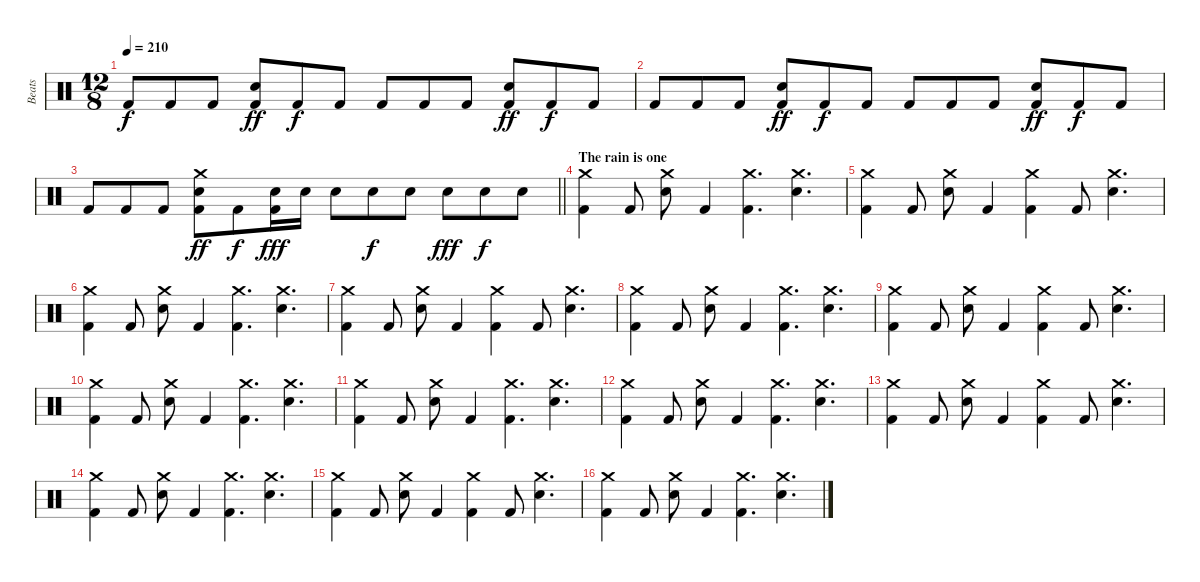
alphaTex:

\track ("Beats" "Beats") {instrument percussion}
\staff {score}
\articulation defaults
\ts (12 8)
\tempo 210
\clef neutral
\ks c "Kick (hit) 2".8{dy f} "Kick (hit) 2".8 "Kick (hit) 2".8
("Snare (hit) 2" "Kick (hit) 2").8{dy ff} "Kick (hit) 2".8{dy f} "Kick (hit) 2".8 "Kick (hit) 2".8 "Kick (hit) 2".8 "Kick (hit) 2".8 ("Snare (hit) 2" "Kick (hit) 2").8{dy ff} "Kick (hit) 2".8{dy f} "Kick (hit) 2".8 |
"Kick (hit) 2".8 "Kick (hit) 2".8 "Kick (hit) 2".8 ("Snare (hit) 2" "Kick (hit) 2").8{dy ff} "Kick (hit) 2".8{dy f} "Kick (hit) 2".8 "Kick (hit) 2".8 "Kick (hit) 2".8 "Kick (hit) 2".8 ("Snare (hit) 2" "Kick (hit) 2").8{dy ff} "Kick (hit) 2".8{dy f} "Kick (hit) 2".8 |
\barLineRight lightlight "Kick (hit) 2".8 "Kick (hit) 2".8 "Kick (hit) 2".8
("Crash medium (hit)" "Snare (hit) 2" "Kick (hit) 2").8{dy ff} "Kick (hit) 2".8{dy f} ("Snare (hit) 2" "Kick (hit) 2").16{dy fff} "Snare (hit) 2".16 "Snare (hit) 2".8 "Snare (hit) 2".8{dy f} "Snare (hit) 2".8 "Snare (hit) 2".8{dy fff} "Snare (hit) 2".8{dy f} "Snare (hit) 2".8 |
\section ("" "The rain is one")
("Crash medium (hit)" "Kick (hit) 2").4 "Kick (hit) 2".8 ("Crash medium (hit)" "Snare (hit) 2").8 "Kick (hit) 2".4 ("Crash medium (hit)" "Kick (hit) 2").4{d} ("Crash medium (hit)" "Snare (hit) 2").4{d} |
("Crash medium (hit)" "Kick (hit) 2").4 "Kick (hit) 2".8 ("Crash medium (hit)" "Snare (hit) 2").8 "Kick (hit) 2".4 ("Crash medium (hit)" "Kick (hit) 2").4 "Kick (hit) 2".8 ("Crash medium (hit)" "Snare (hit) 2").4{d} |
("Crash medium (hit)" "Kick (hit) 2").4 "Kick (hit) 2".8 ("Crash medium (hit)" "Snare (hit) 2").8 "Kick (hit) 2".4 ("Crash medium (hit)" "Kick (hit) 2").4{d} ("Crash medium (hit)" "Snare (hit) 2").4{d} |
("Crash medium (hit)" "Kick (hit) 2").4 "Kick (hit) 2".8 ("Crash medium (hit)" "Snare (hit) 2").8 "Kick (hit) 2".4 ("Crash medium (hit)" "Kick (hit) 2").4 "Kick (hit) 2".8 ("Crash medium (hit)" "Snare (hit) 2").4{d} |
("Crash medium (hit)" "Kick (hit) 2").4 "Kick (hit) 2".8 ("Crash medium (hit)" "Snare (hit) 2").8 "Kick (hit) 2".4 ("Crash medium (hit)" "Kick (hit) 2").4{d} ("Crash medium (hit)" "Snare (hit) 2").4{d} |
("Crash medium (hit)" "Kick (hit) 2").4 "Kick (hit) 2".8 ("Crash medium (hit)" "Snare (hit) 2").8 "Kick (hit) 2".4 ("Crash medium (hit)" "Kick (hit) 2").4 "Kick (hit) 2".8 ("Crash medium (hit)" "Snare (hit) 2").4{d} |
("Crash medium (hit)" "Kick (hit) 2").4 "Kick (hit) 2".8 ("Crash medium (hit)" "Snare (hit) 2").8 "Kick (hit) 2".4 ("Crash medium (hit)" "Kick (hit) 2").4{d} ("Crash medium (hit)" "Snare (hit) 2").4{d} |
("Crash medium (hit)" "Kick (hit) 2").4 "Kick (hit) 2".8 ("Crash medium (hit)" "Snare (hit) 2").8 "Kick (hit) 2".4 ("Crash medium (hit)" "Kick (hit) 2").4{d} ("Crash medium (hit)" "Snare (hit) 2").4{d} |
("Crash medium (hit)" "Kick (hit) 2").4 "Kick (hit) 2".8 ("Crash medium (hit)" "Snare (hit) 2").8 "Kick (hit) 2".4 ("Crash medium (hit)" "Kick (hit) 2").4{d} ("Crash medium (hit)" "Snare (hit) 2").4{d} |
("Crash medium (hit)" "Kick (hit) 2").4 "Kick (hit) 2".8 ("Crash medium (hit)" "Snare (hit) 2").8 "Kick (hit) 2".4 ("Crash medium (hit)" "Kick (hit) 2").4 "Kick (hit) 2".8 ("Crash medium (hit)" "Snare (hit) 2").4{d} |
("Crash medium (hit)" "Kick (hit) 2").4 "Kick (hit) 2".8 ("Crash medium (hit)" "Snare (hit) 2").8 "Kick (hit) 2".4 ("Crash medium (hit)" "Kick (hit) 2").4{d} ("Crash medium (hit)" "Snare (hit) 2").4{d} |
("Crash medium (hit)" "Kick (hit) 2").4 "Kick (hit) 2".8 ("Crash medium (hit)" "Snare (hit) 2").8 "Kick (hit) 2".4 ("Crash medium (hit)" "Kick (hit) 2").4 "Kick (hit) 2".8 ("Crash medium (hit)" "Snare (hit) 2").4{d} |
("Crash medium (hit)" "Kick (hit) 2").4 "Kick (hit) 2".8 ("Crash medium (hit)" "Snare (hit) 2").8 "Kick (hit) 2".4 ("Crash medium (hit)" "Kick (hit) 2").4{d} ("Crash medium (hit)" "Snare (hit) 2").4{d}
